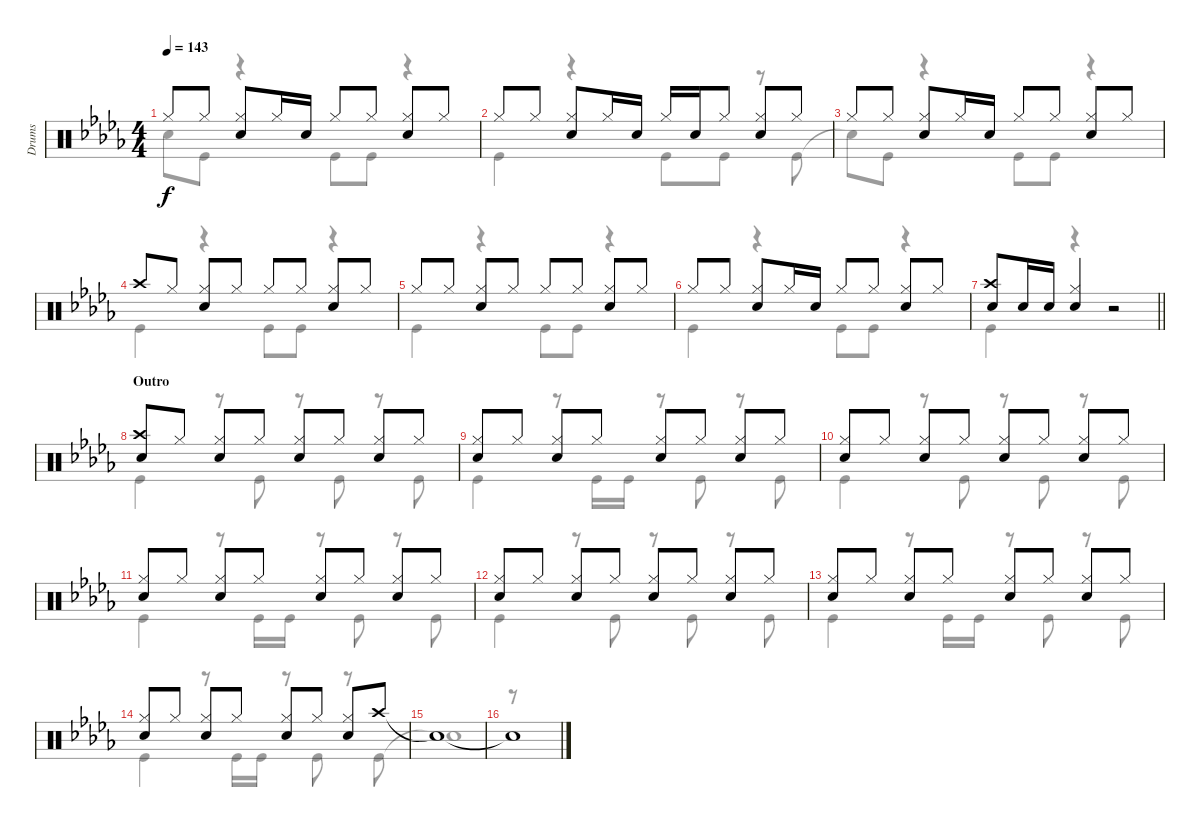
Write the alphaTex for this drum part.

\track ("Drums" "Drums") {instrument percussion}
\staff {score}
\articulation defaults
\voice
\ts (4 4)
\tempo 143
\clef neutral
\ks db "Hi-Hat (closed)".8{dy f} "Hi-Hat (closed)".8
("Hi-Hat (closed)" "Snare (hit) 2").8 "Hi-Hat (closed)".16 "Snare (hit) 2".16 "Hi-Hat (closed)".8 "Hi-Hat (closed)".8 ("Hi-Hat (closed)" "Snare (hit) 2").8 "Hi-Hat (closed)".8 |
"Hi-Hat (closed)".8 "Hi-Hat (closed)".8 ("Hi-Hat (closed)" "Snare (hit) 2").8 "Hi-Hat (closed)".16 "Snare (hit) 2".16 "Hi-Hat (closed)".16 "Snare (hit) 2".16 "Hi-Hat (closed)".8 ("Hi-Hat (closed)" "Snare (hit) 2").8 "Hi-Hat (closed)".8 |
"Hi-Hat (closed)".8 "Hi-Hat (closed)".8 ("Hi-Hat (closed)" "Snare (hit) 2").8 "Hi-Hat (closed)".16 "Snare (hit) 2".16 "Hi-Hat (closed)".8 "Hi-Hat (closed)".8 ("Hi-Hat (closed)" "Snare (hit) 2").8 "Hi-Hat (closed)".8 |
"Crash high (hit)".8 "Hi-Hat (closed)".8 ("Hi-Hat (closed)" "Snare (hit) 2").8 "Hi-Hat (closed)".8 "Hi-Hat (closed)".8 "Hi-Hat (closed)".8 ("Hi-Hat (closed)" "Snare (hit) 2").8 "Hi-Hat (closed)".8 |
"Hi-Hat (closed)".8 "Hi-Hat (closed)".8 ("Hi-Hat (closed)" "Snare (hit) 2").8 "Hi-Hat (closed)".8 "Hi-Hat (closed)".8 "Hi-Hat (closed)".8 ("Hi-Hat (closed)" "Snare (hit) 2").8 "Hi-Hat (closed)".8 |
"Hi-Hat (closed)".8 "Hi-Hat (closed)".8 ("Hi-Hat (closed)" "Snare (hit) 2").8 "Hi-Hat (closed)".16 "Snare (hit) 2".16 "Hi-Hat (closed)".8 "Hi-Hat (closed)".8 ("Hi-Hat (closed)" "Snare (hit) 2").8 "Hi-Hat (closed)".8 |
\barLineRight lightlight
("Crash high (hit)" "Snare (hit) 2").8 "Snare (hit) 2".16 "Snare (hit) 2".16 ("Snare (hit) 2" "Hi-Hat (closed)").4 r.2 |
\section ("" "Outro")
("Crash high (hit)" "Snare (hit) 2").8 "Hi-Hat (closed)".8 ("Hi-Hat (closed)" "Snare (hit) 2").8 "Hi-Hat (closed)".8 ("Hi-Hat (closed)" "Snare (hit) 2").8 "Hi-Hat (closed)".8 ("Hi-Hat (closed)" "Snare (hit) 2").8 "Hi-Hat (closed)".8 |
("Hi-Hat (closed)" "Snare (hit) 2").8 "Hi-Hat (closed)".8 ("Hi-Hat (closed)" "Snare (hit) 2").8 "Hi-Hat (closed)".8 ("Hi-Hat (closed)" "Snare (hit) 2").8 "Hi-Hat (closed)".8 ("Hi-Hat (closed)" "Snare (hit) 2").8 "Hi-Hat (closed)".8 |
("Hi-Hat (closed)" "Snare (hit) 2").8 "Hi-Hat (closed)".8 ("Hi-Hat (closed)" "Snare (hit) 2").8 "Hi-Hat (closed)".8 ("Hi-Hat (closed)" "Snare (hit) 2").8 "Hi-Hat (closed)".8 ("Hi-Hat (closed)" "Snare (hit) 2").8 "Hi-Hat (closed)".8 |
("Hi-Hat (closed)" "Snare (hit) 2").8 "Hi-Hat (closed)".8 ("Hi-Hat (closed)" "Snare (hit) 2").8 "Hi-Hat (closed)".8 ("Hi-Hat (closed)" "Snare (hit) 2").8 "Hi-Hat (closed)".8 ("Hi-Hat (closed)" "Snare (hit) 2").8 "Hi-Hat (closed)".8 |
("Hi-Hat (closed)" "Snare (hit) 2").8 "Hi-Hat (closed)".8 ("Hi-Hat (closed)" "Snare (hit) 2").8 "Hi-Hat (closed)".8 ("Hi-Hat (closed)" "Snare (hit) 2").8 "Hi-Hat (closed)".8 ("Hi-Hat (closed)" "Snare (hit) 2").8 "Hi-Hat (closed)".8 |
("Hi-Hat (closed)" "Snare (hit) 2").8 "Hi-Hat (closed)".8 ("Hi-Hat (closed)" "Snare (hit) 2").8 "Hi-Hat (closed)".8 ("Hi-Hat (closed)" "Snare (hit) 2").8 "Hi-Hat (closed)".8 ("Hi-Hat (closed)" "Snare (hit) 2").8 "Hi-Hat (closed)".8 |
("Hi-Hat (closed)" "Snare (hit) 2").8 "Hi-Hat (closed)".8 ("Hi-Hat (closed)" "Snare (hit) 2").8 "Hi-Hat (closed)".8 ("Hi-Hat (closed)" "Snare (hit) 2").8 "Hi-Hat (closed)".8 ("Hi-Hat (closed)" "Snare (hit) 2").8 "Crash high (hit)".8 |
"Snare (hit)"{t}.1 |
"Snare (hit)"{t}.1
\voice
\clef neutral
\ottava regular
\simile none
\ks db "Snare (hit)"{t}.8{dy f} "Kick (hit)".8
r.4 "Kick (hit)".8 "Kick (hit)".8 r.4 |
"Kick (hit)".4 r.4 "Kick (hit)".8 "Kick (hit)".8 r.8 "Kick (hit)".8 |
"Snare (hit)"{t}.8 "Kick (hit)".8 r.4 "Kick (hit)".8 "Kick (hit)".8 r.4 |
"Kick (hit)".4 r.4 "Kick (hit)".8 "Kick (hit)".8 r.4 |
"Kick (hit)".4 r.4 "Kick (hit)".8 "Kick (hit)".8 r.4 |
"Kick (hit)".4 r.4 "Kick (hit)".8 "Kick (hit)".8 r.4 |
\barLineRight lightlight "Kick (hit)".4
r.4 r.2 |
"Kick (hit)".4 r.8 "Kick (hit)".8 r.8 "Kick (hit)".8 r.8 "Kick (hit)".8 |
"Kick (hit)".4 r.8 "Kick (hit)".16 "Kick (hit)".16 r.8 "Kick (hit)".8 r.8 "Kick (hit)".8 |
"Kick (hit)".4 r.8 "Kick (hit)".8 r.8 "Kick (hit)".8 r.8 "Kick (hit)".8 |
"Kick (hit)".4 r.8 "Kick (hit)".16 "Kick (hit)".16 r.8 "Kick (hit)".8 r.8 "Kick (hit)".8 |
"Kick (hit)".4 r.8 "Kick (hit)".8 r.8 "Kick (hit)".8 r.8 "Kick (hit)".8 |
"Kick (hit)".4 r.8 "Kick (hit)".16 "Kick (hit)".16 r.8 "Kick (hit)".8 r.8 "Kick (hit)".8 |
"Kick (hit)".4 r.8 "Kick (hit)".16 "Kick (hit)".16 r.8 "Kick (hit)".8 r.8 "Kick (hit)".8 |
"Snare (hit)"{t}.1 |
r.8
